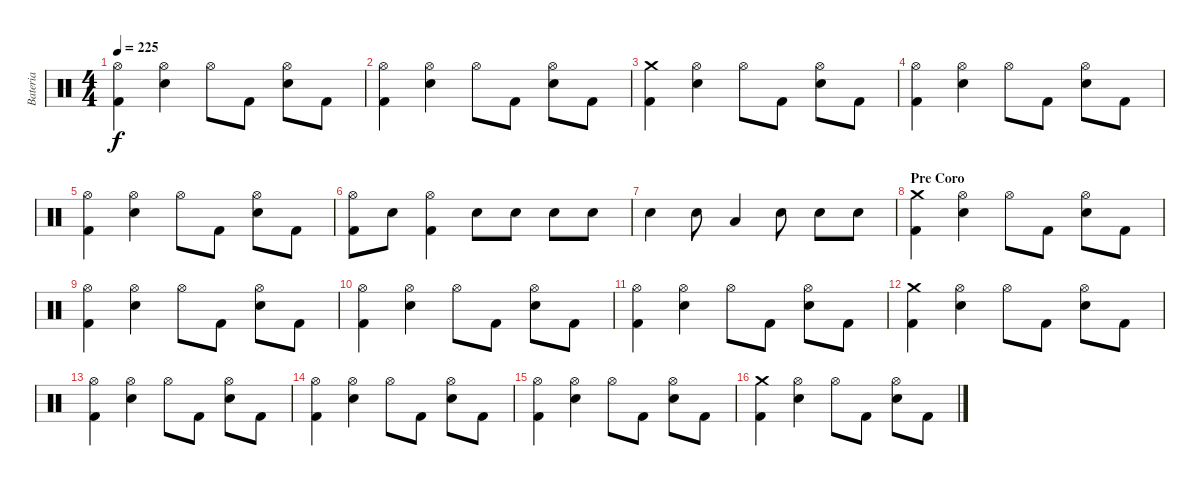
\track ("Bateria" "Bateria") {instrument percussion}
\staff {score}
\articulation defaults
\ts (4 4)
\tempo 225
\clef neutral
\ks c
("Hi-Hat (open)" "Kick (hit) 2").4{dy f} ("Snare (hit) 2" "Hi-Hat (open)").4 "Hi-Hat (open)".8 "Kick (hit) 2".8 ("Hi-Hat (open)" "Snare (hit) 2").8 "Kick (hit) 2".8 |
("Hi-Hat (open)" "Kick (hit) 2").4 ("Snare (hit) 2" "Hi-Hat (open)").4 "Hi-Hat (open)".8 "Kick (hit) 2".8 ("Hi-Hat (open)" "Snare (hit) 2").8 "Kick (hit) 2".8 |
("Crash medium (hit)" "Kick (hit) 2").4 ("Snare (hit) 2" "Hi-Hat (open)").4 "Hi-Hat (open)".8 "Kick (hit) 2".8 ("Hi-Hat (open)" "Snare (hit) 2").8 "Kick (hit) 2".8 |
("Hi-Hat (open)" "Kick (hit) 2").4 ("Snare (hit) 2" "Hi-Hat (open)").4 "Hi-Hat (open)".8 "Kick (hit) 2".8 ("Hi-Hat (open)" "Snare (hit) 2").8 "Kick (hit) 2".8 |
("Hi-Hat (open)" "Kick (hit) 2").4 ("Snare (hit) 2" "Hi-Hat (open)").4 "Hi-Hat (open)".8 "Kick (hit) 2".8 ("Hi-Hat (open)" "Snare (hit) 2").8 "Kick (hit) 2".8 |
("Hi-Hat (open)" "Kick (hit) 2").8 "Snare (hit) 2".8 ("Kick (hit) 2" "Hi-Hat (open)").4 "Snare (hit) 2".8 "Snare (hit) 2".8 "Snare (hit) 2".8 "Snare (hit) 2".8 |
"Snare (hit) 2".4 "Snare (hit) 2".8 "Low Tom (hit)".4 "Snare (hit) 2".8 "Snare (hit) 2".8 "Snare (hit) 2".8 |
\section ("" "Pre Coro")
("Crash medium (hit)" "Kick (hit) 2").4 ("Snare (hit) 2" "Hi-Hat (open)").4 "Hi-Hat (open)".8 "Kick (hit) 2".8 ("Hi-Hat (open)" "Snare (hit) 2").8 "Kick (hit) 2".8 |
("Hi-Hat (open)" "Kick (hit) 2").4 ("Snare (hit) 2" "Hi-Hat (open)").4 "Hi-Hat (open)".8 "Kick (hit) 2".8 ("Hi-Hat (open)" "Snare (hit) 2").8 "Kick (hit) 2".8 |
("Hi-Hat (open)" "Kick (hit) 2").4 ("Snare (hit) 2" "Hi-Hat (open)").4 "Hi-Hat (open)".8 "Kick (hit) 2".8 ("Hi-Hat (open)" "Snare (hit) 2").8 "Kick (hit) 2".8 |
("Hi-Hat (open)" "Kick (hit) 2").4 ("Snare (hit) 2" "Hi-Hat (open)").4 "Hi-Hat (open)".8 "Kick (hit) 2".8 ("Hi-Hat (open)" "Snare (hit) 2").8 "Kick (hit) 2".8 |
("Crash medium (hit)" "Kick (hit) 2").4 ("Snare (hit) 2" "Hi-Hat (open)").4 "Hi-Hat (open)".8 "Kick (hit) 2".8 ("Hi-Hat (open)" "Snare (hit) 2").8 "Kick (hit) 2".8 |
("Hi-Hat (open)" "Kick (hit) 2").4 ("Snare (hit) 2" "Hi-Hat (open)").4 "Hi-Hat (open)".8 "Kick (hit) 2".8 ("Hi-Hat (open)" "Snare (hit) 2").8 "Kick (hit) 2".8 |
("Hi-Hat (open)" "Kick (hit) 2").4 ("Snare (hit) 2" "Hi-Hat (open)").4 "Hi-Hat (open)".8 "Kick (hit) 2".8 ("Hi-Hat (open)" "Snare (hit) 2").8 "Kick (hit) 2".8 |
("Hi-Hat (open)" "Kick (hit) 2").4 ("Snare (hit) 2" "Hi-Hat (open)").4 "Hi-Hat (open)".8 "Kick (hit) 2".8 ("Hi-Hat (open)" "Snare (hit) 2").8 "Kick (hit) 2".8 |
("Crash medium (hit)" "Kick (hit) 2").4 ("Snare (hit) 2" "Hi-Hat (open)").4 "Hi-Hat (open)".8 "Kick (hit) 2".8 ("Hi-Hat (open)" "Snare (hit) 2").8 "Kick (hit) 2".8
